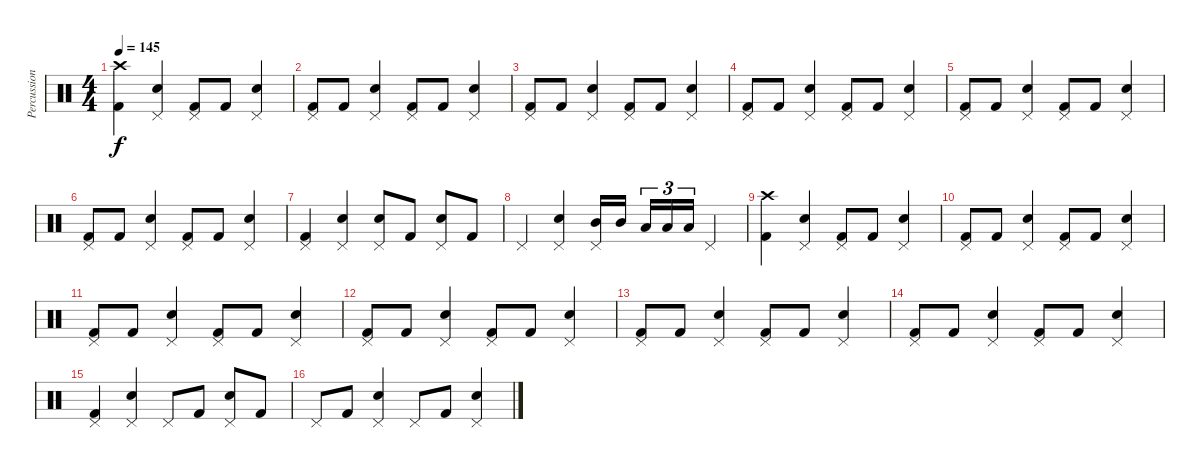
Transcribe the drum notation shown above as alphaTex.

\track ("Percussion" "Percussion") {instrument percussion}
\staff {score}
\articulation defaults
\ts (4 4)
\section ("" "")
\tempo 145
\clef neutral
\ks c
("Crash high (hit)" "Kick (hit) 2").4{dy f} ("Pedal Hi-Hat (hit)" "Snare (hit) 2").4 ("Pedal Hi-Hat (hit)" "Kick (hit) 2").8 "Kick (hit) 2".8 ("Pedal Hi-Hat (hit)" "Snare (hit) 2").4 |
("Pedal Hi-Hat (hit)" "Kick (hit) 2").8 "Kick (hit) 2".8 ("Pedal Hi-Hat (hit)" "Snare (hit) 2").4 ("Pedal Hi-Hat (hit)" "Kick (hit) 2").8 "Kick (hit) 2".8 ("Pedal Hi-Hat (hit)" "Snare (hit) 2").4 |
("Pedal Hi-Hat (hit)" "Kick (hit) 2").8 "Kick (hit) 2".8 ("Pedal Hi-Hat (hit)" "Snare (hit) 2").4 ("Pedal Hi-Hat (hit)" "Kick (hit) 2").8 "Kick (hit) 2".8 ("Pedal Hi-Hat (hit)" "Snare (hit) 2").4 |
("Pedal Hi-Hat (hit)" "Kick (hit) 2").8 "Kick (hit) 2".8 ("Pedal Hi-Hat (hit)" "Snare (hit) 2").4 ("Pedal Hi-Hat (hit)" "Kick (hit) 2").8 "Kick (hit) 2".8 ("Pedal Hi-Hat (hit)" "Snare (hit) 2").4 |
("Pedal Hi-Hat (hit)" "Kick (hit) 2").8 "Kick (hit) 2".8 ("Pedal Hi-Hat (hit)" "Snare (hit) 2").4 ("Pedal Hi-Hat (hit)" "Kick (hit) 2").8 "Kick (hit) 2".8 ("Pedal Hi-Hat (hit)" "Snare (hit) 2").4 |
("Pedal Hi-Hat (hit)" "Kick (hit) 2").8 "Kick (hit) 2".8 ("Pedal Hi-Hat (hit)" "Snare (hit) 2").4 ("Pedal Hi-Hat (hit)" "Kick (hit) 2").8 "Kick (hit) 2".8 ("Pedal Hi-Hat (hit)" "Snare (hit) 2").4 |
("Pedal Hi-Hat (hit)" "Kick (hit) 2").4 ("Pedal Hi-Hat (hit)" "Snare (hit) 2").4 ("Pedal Hi-Hat (hit)" "Snare (hit) 2").8 "Kick (hit) 2".8 ("Pedal Hi-Hat (hit)" "Snare (hit) 2").8 "Kick (hit) 2".8 |
"Pedal Hi-Hat (hit)".4 ("Pedal Hi-Hat (hit)" "Snare (hit) 2").4 ("Pedal Hi-Hat (hit)" "Mid Tom (hit)").16 "Mid Tom (hit)".16 "Low Tom (hit)".16{tu (3 2)} "Low Tom (hit)".16{tu (3 2)} "Low Tom (hit)".16{tu (3 2)} "Pedal Hi-Hat (hit)".4 |
("Crash high (hit)" "Kick (hit) 2").4 ("Pedal Hi-Hat (hit)" "Snare (hit) 2").4 ("Pedal Hi-Hat (hit)" "Kick (hit) 2").8 "Kick (hit) 2".8 ("Pedal Hi-Hat (hit)" "Snare (hit) 2").4 |
("Pedal Hi-Hat (hit)" "Kick (hit) 2").8 "Kick (hit) 2".8 ("Pedal Hi-Hat (hit)" "Snare (hit) 2").4 ("Pedal Hi-Hat (hit)" "Kick (hit) 2").8 "Kick (hit) 2".8 ("Pedal Hi-Hat (hit)" "Snare (hit) 2").4 |
("Pedal Hi-Hat (hit)" "Kick (hit) 2").8 "Kick (hit) 2".8 ("Pedal Hi-Hat (hit)" "Snare (hit) 2").4 ("Pedal Hi-Hat (hit)" "Kick (hit) 2").8 "Kick (hit) 2".8 ("Pedal Hi-Hat (hit)" "Snare (hit) 2").4 |
("Pedal Hi-Hat (hit)" "Kick (hit) 2").8 "Kick (hit) 2".8 ("Pedal Hi-Hat (hit)" "Snare (hit) 2").4 ("Pedal Hi-Hat (hit)" "Kick (hit) 2").8 "Kick (hit) 2".8 ("Pedal Hi-Hat (hit)" "Snare (hit) 2").4 |
("Pedal Hi-Hat (hit)" "Kick (hit) 2").8 "Kick (hit) 2".8 ("Pedal Hi-Hat (hit)" "Snare (hit) 2").4 ("Pedal Hi-Hat (hit)" "Kick (hit) 2").8 "Kick (hit) 2".8 ("Pedal Hi-Hat (hit)" "Snare (hit) 2").4 |
("Pedal Hi-Hat (hit)" "Kick (hit) 2").8 "Kick (hit) 2".8 ("Pedal Hi-Hat (hit)" "Snare (hit) 2").4 ("Pedal Hi-Hat (hit)" "Kick (hit) 2").8 "Kick (hit) 2".8 ("Pedal Hi-Hat (hit)" "Snare (hit) 2").4 |
("Pedal Hi-Hat (hit)" "Kick (hit) 2").4 ("Pedal Hi-Hat (hit)" "Snare (hit) 2").4 "Pedal Hi-Hat (hit)".8 "Kick (hit) 2".8 ("Pedal Hi-Hat (hit)" "Snare (hit) 2").8 "Kick (hit) 2".8 |
"Pedal Hi-Hat (hit)".8 "Kick (hit) 2".8 ("Pedal Hi-Hat (hit)" "Snare (hit) 2").4 "Pedal Hi-Hat (hit)".8 "Kick (hit) 2".8 ("Pedal Hi-Hat (hit)" "Snare (hit) 2").4
